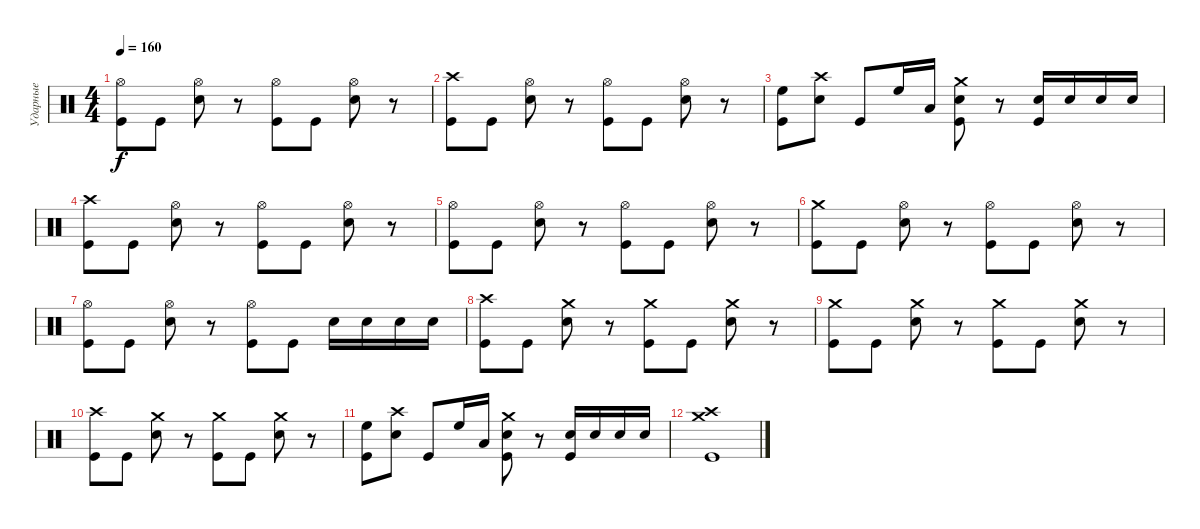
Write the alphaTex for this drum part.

\track ("Ударные" "Ударные") {instrument percussion}
\staff {score}
\articulation defaults
\ts (4 4)
\tempo 160
\clef neutral
\ks c
("Kick (hit)" "Hi-Hat (open)").8{dy f} "Kick (hit)".8 ("Snare (hit) 2" "Hi-Hat (open)").8 r.8 ("Kick (hit)" "Hi-Hat (open)").8 "Kick (hit)".8 ("Snare (hit) 2" "Hi-Hat (open)").8 r.8 |
("Kick (hit)" "Crash high (hit)").8 "Kick (hit)".8 ("Snare (hit) 2" "Hi-Hat (open)").8 r.8 ("Kick (hit)" "Hi-Hat (open)").8 "Kick (hit)".8 ("Snare (hit) 2" "Hi-Hat (open)").8 r.8 |
("High Floor Tom (hit)" "Kick (hit)").8 ("Snare (hit) 2" "Crash high (hit)").8 "Kick (hit)".8 "High Floor Tom (hit)".16 "Low Tom (hit)".16 ("Snare (hit) 2" "Kick (hit)" "Crash medium (hit)").8 r.8 ("Snare (hit) 2" "Kick (hit)").16 "Snare (hit) 2".16 "Snare (hit) 2".16 "Snare (hit) 2".16 |
("Kick (hit)" "Crash high (hit)").8 "Kick (hit)".8 ("Snare (hit) 2" "Hi-Hat (open)").8 r.8 ("Kick (hit)" "Hi-Hat (open)").8 "Kick (hit)".8 ("Snare (hit) 2" "Hi-Hat (open)").8 r.8 |
("Kick (hit)" "Hi-Hat (open)").8 "Kick (hit)".8 ("Snare (hit) 2" "Hi-Hat (open)").8 r.8 ("Kick (hit)" "Hi-Hat (open)").8 "Kick (hit)".8 ("Snare (hit) 2" "Hi-Hat (open)").8 r.8 |
("Kick (hit)" "Crash medium (hit)").8 "Kick (hit)".8 ("Snare (hit) 2" "Hi-Hat (open)").8 r.8 ("Kick (hit)" "Hi-Hat (open)").8 "Kick (hit)".8 ("Snare (hit) 2" "Hi-Hat (open)").8 r.8 |
("Kick (hit)" "Hi-Hat (open)").8 "Kick (hit)".8 ("Snare (hit) 2" "Hi-Hat (open)").8 r.8 ("Kick (hit)" "Hi-Hat (open)").8 "Kick (hit)".8 "Snare (hit) 2".16 "Snare (hit) 2".16 "Snare (hit) 2".16 "Snare (hit) 2".16 |
("Kick (hit)" "Crash high (hit)").8 "Kick (hit)".8 ("Snare (hit) 2" "Crash medium (hit)").8 r.8 ("Kick (hit)" "Crash medium (hit)").8 "Kick (hit)".8 ("Snare (hit) 2" "Crash medium (hit)").8 r.8 |
("Kick (hit)" "Crash medium (hit)").8 "Kick (hit)".8 ("Snare (hit) 2" "Crash medium (hit)").8 r.8 ("Kick (hit)" "Crash medium (hit)").8 "Kick (hit)".8 ("Snare (hit) 2" "Crash medium (hit)").8 r.8 |
("Kick (hit)" "Crash high (hit)").8 "Kick (hit)".8 ("Snare (hit) 2" "Crash medium (hit)").8 r.8 ("Kick (hit)" "Crash medium (hit)").8 "Kick (hit)".8 ("Snare (hit) 2" "Crash medium (hit)").8 r.8 |
("High Floor Tom (hit)" "Kick (hit)").8 ("Snare (hit) 2" "Crash high (hit)").8 "Kick (hit)".8 "High Floor Tom (hit)".16 "Low Tom (hit)".16 ("Snare (hit) 2" "Kick (hit)" "Crash medium (hit)").8 r.8 ("Snare (hit) 2" "Kick (hit)").16 "Snare (hit) 2".16 "Snare (hit) 2".16 "Snare (hit) 2".16 |
("Crash medium (hit)" "Crash high (hit)" "Kick (hit)").1
